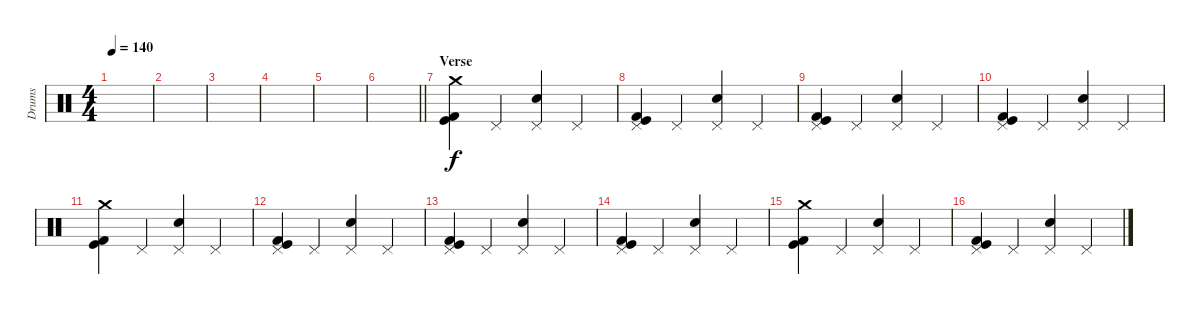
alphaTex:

\track ("Drums" "Drums") {instrument percussion}
\staff {score}
\articulation defaults
\ts (4 4)
\tempo 140
\clef neutral
\ks c
|
|
|
|
|
\barLineRight lightlight
|
\section ("" "Verse")
("Kick (hit)" "Kick (hit) 2" "Crash medium (hit)").4 "Pedal Hi-Hat (hit)".4 ("Pedal Hi-Hat (hit)" "Snare (hit) 2").4 "Pedal Hi-Hat (hit)".4 |
("Pedal Hi-Hat (hit)" "Kick (hit) 2" "Kick (hit)").4 "Pedal Hi-Hat (hit)".4 ("Pedal Hi-Hat (hit)" "Snare (hit) 2").4 "Pedal Hi-Hat (hit)".4 |
("Pedal Hi-Hat (hit)" "Kick (hit) 2" "Kick (hit)").4 "Pedal Hi-Hat (hit)".4 ("Pedal Hi-Hat (hit)" "Snare (hit) 2").4 "Pedal Hi-Hat (hit)".4 |
("Pedal Hi-Hat (hit)" "Kick (hit) 2" "Kick (hit)").4 "Pedal Hi-Hat (hit)".4 ("Pedal Hi-Hat (hit)" "Snare (hit) 2").4 "Pedal Hi-Hat (hit)".4 |
("Kick (hit)" "Kick (hit) 2" "Crash medium (hit)").4 "Pedal Hi-Hat (hit)".4 ("Pedal Hi-Hat (hit)" "Snare (hit) 2").4 "Pedal Hi-Hat (hit)".4 |
("Pedal Hi-Hat (hit)" "Kick (hit) 2" "Kick (hit)").4 "Pedal Hi-Hat (hit)".4 ("Pedal Hi-Hat (hit)" "Snare (hit) 2").4 "Pedal Hi-Hat (hit)".4 |
("Pedal Hi-Hat (hit)" "Kick (hit) 2" "Kick (hit)").4 "Pedal Hi-Hat (hit)".4 ("Pedal Hi-Hat (hit)" "Snare (hit) 2").4 "Pedal Hi-Hat (hit)".4 |
("Pedal Hi-Hat (hit)" "Kick (hit) 2" "Kick (hit)").4 "Pedal Hi-Hat (hit)".4 ("Pedal Hi-Hat (hit)" "Snare (hit) 2").4 "Pedal Hi-Hat (hit)".4 |
("Kick (hit)" "Kick (hit) 2" "Crash medium (hit)").4 "Pedal Hi-Hat (hit)".4 ("Pedal Hi-Hat (hit)" "Snare (hit) 2").4 "Pedal Hi-Hat (hit)".4 |
("Pedal Hi-Hat (hit)" "Kick (hit) 2" "Kick (hit)").4 "Pedal Hi-Hat (hit)".4 ("Pedal Hi-Hat (hit)" "Snare (hit) 2").4 "Pedal Hi-Hat (hit)".4
